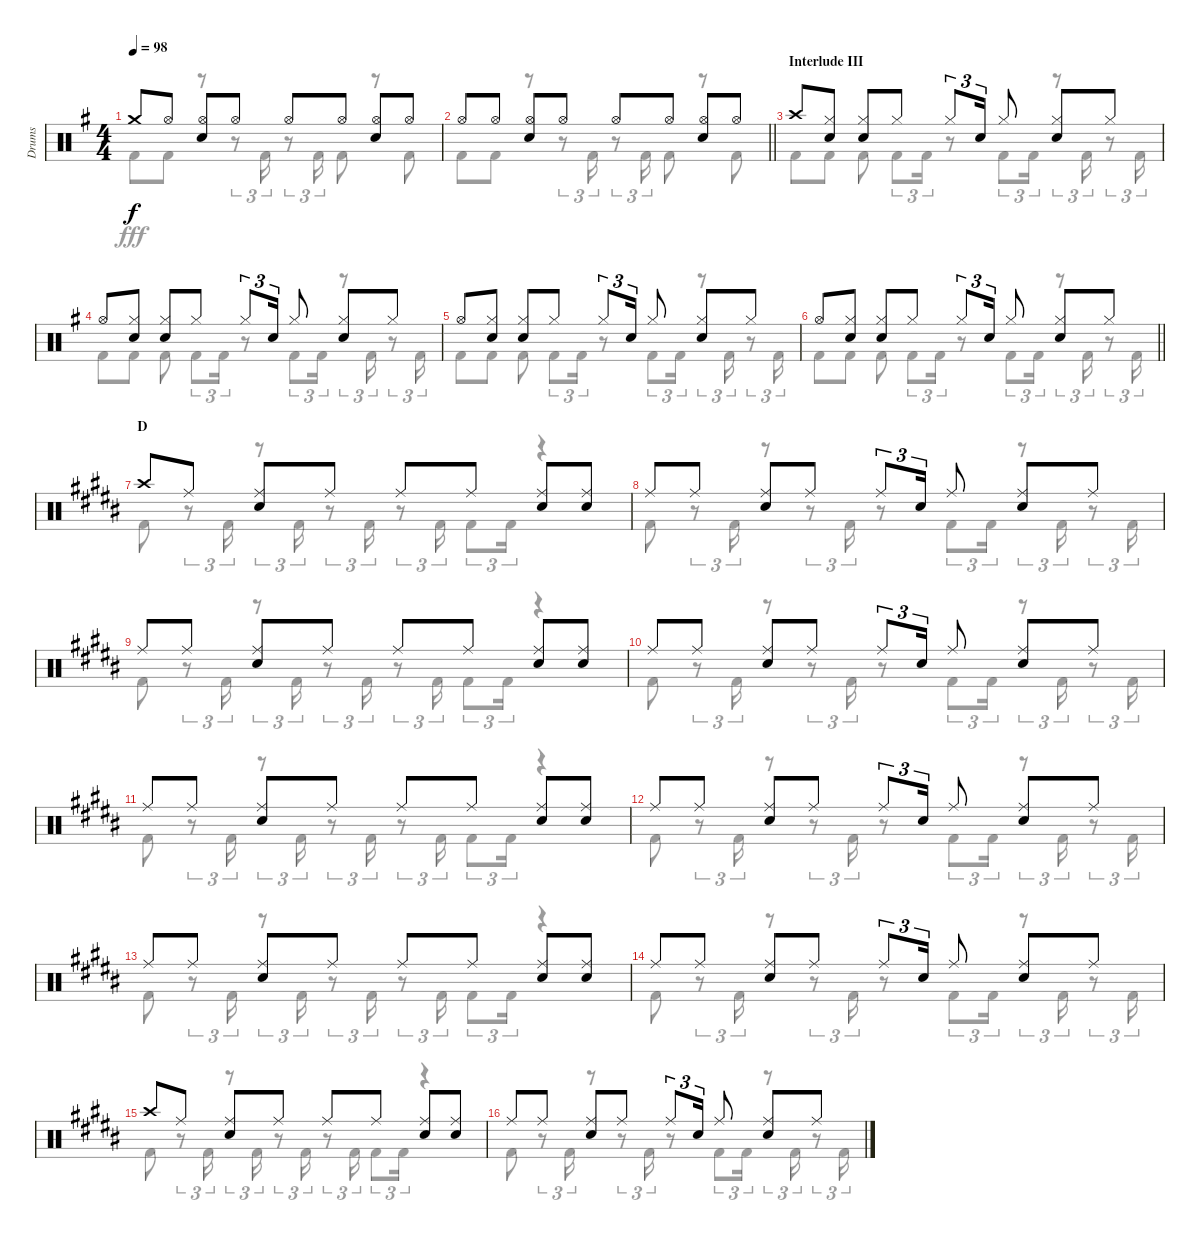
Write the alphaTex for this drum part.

\track ("Drums" "Drums") {instrument percussion}
\staff {score}
\articulation defaults
\voice
\ts (4 4)
\tempo 98
\clef neutral
\ks g "Crash medium (hit)".8{dy f} "Hi-Hat (open)".8
("Hi-Hat (open)" "Snare (hit) 2").8 "Hi-Hat (open)".8 "Hi-Hat (open)".8 "Hi-Hat (open)".8 ("Hi-Hat (open)" "Snare (hit) 2").8 "Hi-Hat (open)".8 |
\barLineRight lightlight "Hi-Hat (open)".8 "Hi-Hat (open)".8
("Hi-Hat (open)" "Snare (hit) 2").8 "Hi-Hat (open)".8 "Hi-Hat (open)".8 "Hi-Hat (open)".8 ("Hi-Hat (open)" "Snare (hit) 2").8 "Hi-Hat (open)".8 |
\section ("" "Interlude III")
"Crash high (hit)".8 ("Hi-Hat (closed)" "Snare (hit) 2").8 ("Hi-Hat (closed)" "Snare (hit) 2").8 "Hi-Hat (closed)".8 "Hi-Hat (closed)".8{tu (3 2)} "Snare (hit) 2".16{tu (3 2)} "Hi-Hat (closed)".8 ("Hi-Hat (closed)" "Snare (hit) 2").8 "Hi-Hat (closed)".8 |
"Hi-Hat (open)".8 ("Hi-Hat (closed)" "Snare (hit) 2").8 ("Hi-Hat (closed)" "Snare (hit) 2").8 "Hi-Hat (closed)".8 "Hi-Hat (closed)".8{tu (3 2)} "Snare (hit) 2".16{tu (3 2)} "Hi-Hat (closed)".8 ("Hi-Hat (closed)" "Snare (hit) 2").8 "Hi-Hat (closed)".8 |
"Hi-Hat (open)".8 ("Hi-Hat (closed)" "Snare (hit) 2").8 ("Hi-Hat (closed)" "Snare (hit) 2").8 "Hi-Hat (closed)".8 "Hi-Hat (closed)".8{tu (3 2)} "Snare (hit) 2".16{tu (3 2)} "Hi-Hat (closed)".8 ("Hi-Hat (closed)" "Snare (hit) 2").8 "Hi-Hat (closed)".8 |
\barLineRight lightlight "Hi-Hat (open)".8
("Hi-Hat (closed)" "Snare (hit) 2").8 ("Hi-Hat (closed)" "Snare (hit) 2").8 "Hi-Hat (closed)".8 "Hi-Hat (closed)".8{tu (3 2)} "Snare (hit) 2".16{tu (3 2)} "Hi-Hat (closed)".8 ("Hi-Hat (closed)" "Snare (hit) 2").8 "Hi-Hat (closed)".8 |
\section ("" "D")
\ks b "Crash high (hit)".8 "Ride (middle)".8
("Ride (middle)" "Snare (hit) 2").8 "Ride (middle)".8 "Ride (middle)".8 "Ride (middle)".8 ("Ride (middle)" "Snare (hit) 2").8 ("Ride (middle)" "Snare (hit) 2").8 |
"Ride (middle)".8 "Ride (middle)".8 ("Ride (middle)" "Snare (hit) 2").8 "Ride (middle)".8 "Ride (middle)".8{tu (3 2)} "Snare (hit) 2".16{tu (3 2)} "Ride (middle)".8 ("Ride (middle)" "Snare (hit) 2").8 "Ride (middle)".8 |
"Ride (middle)".8 "Ride (middle)".8 ("Ride (middle)" "Snare (hit) 2").8 "Ride (middle)".8 "Ride (middle)".8 "Ride (middle)".8 ("Ride (middle)" "Snare (hit) 2").8 ("Ride (middle)" "Snare (hit) 2").8 |
"Ride (middle)".8 "Ride (middle)".8 ("Ride (middle)" "Snare (hit) 2").8 "Ride (middle)".8 "Ride (middle)".8{tu (3 2)} "Snare (hit) 2".16{tu (3 2)} "Ride (middle)".8 ("Ride (middle)" "Snare (hit) 2").8 "Ride (middle)".8 |
"Ride (middle)".8 "Ride (middle)".8 ("Ride (middle)" "Snare (hit) 2").8 "Ride (middle)".8 "Ride (middle)".8 "Ride (middle)".8 ("Ride (middle)" "Snare (hit) 2").8 ("Ride (middle)" "Snare (hit) 2").8 |
"Ride (middle)".8 "Ride (middle)".8 ("Ride (middle)" "Snare (hit) 2").8 "Ride (middle)".8 "Ride (middle)".8{tu (3 2)} "Snare (hit) 2".16{tu (3 2)} "Ride (middle)".8 ("Ride (middle)" "Snare (hit) 2").8 "Ride (middle)".8 |
"Ride (middle)".8 "Ride (middle)".8 ("Ride (middle)" "Snare (hit) 2").8 "Ride (middle)".8 "Ride (middle)".8 "Ride (middle)".8 ("Ride (middle)" "Snare (hit) 2").8 ("Ride (middle)" "Snare (hit) 2").8 |
"Ride (middle)".8 "Ride (middle)".8 ("Ride (middle)" "Snare (hit) 2").8 "Ride (middle)".8 "Ride (middle)".8{tu (3 2)} "Snare (hit) 2".16{tu (3 2)} "Ride (middle)".8 ("Ride (middle)" "Snare (hit) 2").8 "Ride (middle)".8 |
"Crash high (hit)".8 "Ride (middle)".8 ("Ride (middle)" "Snare (hit) 2").8 "Ride (middle)".8 "Ride (middle)".8 "Ride (middle)".8 ("Ride (middle)" "Snare (hit) 2").8 ("Ride (middle)" "Snare (hit) 2").8 |
"Ride (middle)".8 "Ride (middle)".8 ("Ride (middle)" "Snare (hit) 2").8 "Ride (middle)".8 "Ride (middle)".8{tu (3 2)} "Snare (hit) 2".16{tu (3 2)} "Ride (middle)".8 ("Ride (middle)" "Snare (hit) 2").8 "Ride (middle)".8
\voice
\clef neutral
\ottava regular
\simile none
\ks g "Kick (hit) 2".8{dy fff} "Kick (hit) 2".8
r.8 r.8{tu (3 2)} "Kick (hit) 2".16{tu (3 2)} r.8{tu (3 2)} "Kick (hit) 2".16{tu (3 2)} "Kick (hit) 2".8 r.8 "Kick (hit) 2".8 |
\barLineRight lightlight "Kick (hit) 2".8 "Kick (hit) 2".8
r.8 r.8{tu (3 2)} "Kick (hit) 2".16{tu (3 2)} r.8{tu (3 2)} "Kick (hit) 2".16{tu (3 2)} "Kick (hit) 2".8 r.8 "Kick (hit) 2".8 |
"Kick (hit) 2".8 "Kick (hit) 2".8 "Kick (hit) 2".8 "Kick (hit) 2".8{tu (3 2)} "Kick (hit) 2".16{tu (3 2)} r.8 "Kick (hit) 2".8{tu (3 2)} "Kick (hit) 2".16{tu (3 2)} r.8{tu (3 2)} "Kick (hit) 2".16{tu (3 2)} r.8{tu (3 2)} "Kick (hit) 2".16{tu (3 2)} |
"Kick (hit) 2".8 "Kick (hit) 2".8 "Kick (hit) 2".8 "Kick (hit) 2".8{tu (3 2)} "Kick (hit) 2".16{tu (3 2)} r.8 "Kick (hit) 2".8{tu (3 2)} "Kick (hit) 2".16{tu (3 2)} r.8{tu (3 2)} "Kick (hit) 2".16{tu (3 2)} r.8{tu (3 2)} "Kick (hit) 2".16{tu (3 2)} |
"Kick (hit) 2".8 "Kick (hit) 2".8 "Kick (hit) 2".8 "Kick (hit) 2".8{tu (3 2)} "Kick (hit) 2".16{tu (3 2)} r.8 "Kick (hit) 2".8{tu (3 2)} "Kick (hit) 2".16{tu (3 2)} r.8{tu (3 2)} "Kick (hit) 2".16{tu (3 2)} r.8{tu (3 2)} "Kick (hit) 2".16{tu (3 2)} |
\barLineRight lightlight "Kick (hit) 2".8 "Kick (hit) 2".8 "Kick (hit) 2".8 "Kick (hit) 2".8{tu (3 2)} "Kick (hit) 2".16{tu (3 2)}
r.8 "Kick (hit) 2".8{tu (3 2)} "Kick (hit) 2".16{tu (3 2)} r.8{tu (3 2)} "Kick (hit) 2".16{tu (3 2)} r.8{tu (3 2)} "Kick (hit) 2".16{tu (3 2)} |
\ks b "Kick (hit) 2".8
r.8{tu (3 2)} "Kick (hit) 2".16{tu (3 2)} r.8{tu (3 2)} "Kick (hit) 2".16{tu (3 2)} r.8{tu (3 2)} "Kick (hit) 2".16{tu (3 2)} r.8{tu (3 2)} "Kick (hit) 2".16{tu (3 2)} "Kick (hit) 2".8{tu (3 2)} "Kick (hit) 2".16{tu (3 2)} r.4 |
"Kick (hit) 2".8 r.8{tu (3 2)} "Kick (hit) 2".16{tu (3 2)} r.8 r.8{tu (3 2)} "Kick (hit) 2".16{tu (3 2)} r.8 "Kick (hit) 2".8{tu (3 2)} "Kick (hit) 2".16{tu (3 2)} r.8{tu (3 2)} "Kick (hit) 2".16{tu (3 2)} r.8{tu (3 2)} "Kick (hit) 2".16{tu (3 2)} |
"Kick (hit) 2".8 r.8{tu (3 2)} "Kick (hit) 2".16{tu (3 2)} r.8{tu (3 2)} "Kick (hit) 2".16{tu (3 2)} r.8{tu (3 2)} "Kick (hit) 2".16{tu (3 2)} r.8{tu (3 2)} "Kick (hit) 2".16{tu (3 2)} "Kick (hit) 2".8{tu (3 2)} "Kick (hit) 2".16{tu (3 2)} r.4 |
"Kick (hit) 2".8 r.8{tu (3 2)} "Kick (hit) 2".16{tu (3 2)} r.8 r.8{tu (3 2)} "Kick (hit) 2".16{tu (3 2)} r.8 "Kick (hit) 2".8{tu (3 2)} "Kick (hit) 2".16{tu (3 2)} r.8{tu (3 2)} "Kick (hit) 2".16{tu (3 2)} r.8{tu (3 2)} "Kick (hit) 2".16{tu (3 2)} |
"Kick (hit) 2".8 r.8{tu (3 2)} "Kick (hit) 2".16{tu (3 2)} r.8{tu (3 2)} "Kick (hit) 2".16{tu (3 2)} r.8{tu (3 2)} "Kick (hit) 2".16{tu (3 2)} r.8{tu (3 2)} "Kick (hit) 2".16{tu (3 2)} "Kick (hit) 2".8{tu (3 2)} "Kick (hit) 2".16{tu (3 2)} r.4 |
"Kick (hit) 2".8 r.8{tu (3 2)} "Kick (hit) 2".16{tu (3 2)} r.8 r.8{tu (3 2)} "Kick (hit) 2".16{tu (3 2)} r.8 "Kick (hit) 2".8{tu (3 2)} "Kick (hit) 2".16{tu (3 2)} r.8{tu (3 2)} "Kick (hit) 2".16{tu (3 2)} r.8{tu (3 2)} "Kick (hit) 2".16{tu (3 2)} |
"Kick (hit) 2".8 r.8{tu (3 2)} "Kick (hit) 2".16{tu (3 2)} r.8{tu (3 2)} "Kick (hit) 2".16{tu (3 2)} r.8{tu (3 2)} "Kick (hit) 2".16{tu (3 2)} r.8{tu (3 2)} "Kick (hit) 2".16{tu (3 2)} "Kick (hit) 2".8{tu (3 2)} "Kick (hit) 2".16{tu (3 2)} r.4 |
"Kick (hit) 2".8 r.8{tu (3 2)} "Kick (hit) 2".16{tu (3 2)} r.8 r.8{tu (3 2)} "Kick (hit) 2".16{tu (3 2)} r.8 "Kick (hit) 2".8{tu (3 2)} "Kick (hit) 2".16{tu (3 2)} r.8{tu (3 2)} "Kick (hit) 2".16{tu (3 2)} r.8{tu (3 2)} "Kick (hit) 2".16{tu (3 2)} |
"Kick (hit) 2".8 r.8{tu (3 2)} "Kick (hit) 2".16{tu (3 2)} r.8{tu (3 2)} "Kick (hit) 2".16{tu (3 2)} r.8{tu (3 2)} "Kick (hit) 2".16{tu (3 2)} r.8{tu (3 2)} "Kick (hit) 2".16{tu (3 2)} "Kick (hit) 2".8{tu (3 2)} "Kick (hit) 2".16{tu (3 2)} r.4 |
"Kick (hit) 2".8 r.8{tu (3 2)} "Kick (hit) 2".16{tu (3 2)} r.8 r.8{tu (3 2)} "Kick (hit) 2".16{tu (3 2)} r.8 "Kick (hit) 2".8{tu (3 2)} "Kick (hit) 2".16{tu (3 2)} r.8{tu (3 2)} "Kick (hit) 2".16{tu (3 2)} r.8{tu (3 2)} "Kick (hit) 2".16{tu (3 2)}
